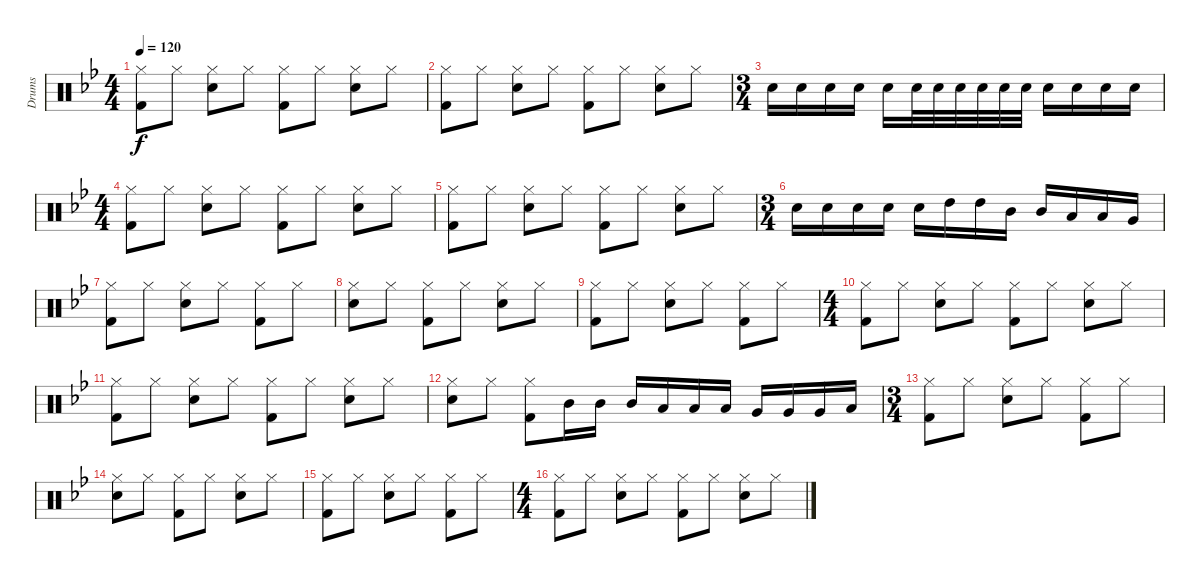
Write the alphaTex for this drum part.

\track ("Drums" "Drums") {instrument percussion}
\staff {score}
\articulation defaults
\ts (4 4)
\tempo 120
\clef neutral
\ks bb
("Hi-Hat (closed)" "Kick (hit) 2").8{dy f} "Hi-Hat (closed)".8 ("Hi-Hat (closed)" "Electric Snare (hit)").8 "Hi-Hat (closed)".8 ("Hi-Hat (closed)" "Kick (hit) 2").8 "Hi-Hat (closed)".8 ("Hi-Hat (closed)" "Electric Snare (hit)").8 "Hi-Hat (closed)".8 |
("Hi-Hat (closed)" "Kick (hit) 2").8 "Hi-Hat (closed)".8 ("Hi-Hat (closed)" "Electric Snare (hit)").8 "Hi-Hat (closed)".8 ("Hi-Hat (closed)" "Kick (hit) 2").8 "Hi-Hat (closed)".8 ("Hi-Hat (closed)" "Electric Snare (hit)").8 "Hi-Hat (closed)".8 |
\ts (3 4)
"Electric Snare (hit)".16 "Electric Snare (hit)".16 "Electric Snare (hit)".16 "Electric Snare (hit)".16 "Electric Snare (hit)".16 "Electric Snare (hit)".32 "Electric Snare (hit)".32 "Electric Snare (hit)".32 "Electric Snare (hit)".32 "Electric Snare (hit)".32 "Electric Snare (hit)".32 "Electric Snare (hit)".16 "Electric Snare (hit)".16 "Electric Snare (hit)".16 "Electric Snare (hit)".16 |
\ts (4 4)
("Hi-Hat (closed)" "Kick (hit) 2").8 "Hi-Hat (closed)".8 ("Hi-Hat (closed)" "Electric Snare (hit)").8 "Hi-Hat (closed)".8 ("Hi-Hat (closed)" "Kick (hit) 2").8 "Hi-Hat (closed)".8 ("Hi-Hat (closed)" "Electric Snare (hit)").8 "Hi-Hat (closed)".8 |
("Hi-Hat (closed)" "Kick (hit) 2").8 "Hi-Hat (closed)".8 ("Hi-Hat (closed)" "Electric Snare (hit)").8 "Hi-Hat (closed)".8 ("Hi-Hat (closed)" "Kick (hit) 2").8 "Hi-Hat (closed)".8 ("Hi-Hat (closed)" "Electric Snare (hit)").8 "Hi-Hat (closed)".8 |
\ts (3 4)
"Electric Snare (hit)".16 "Electric Snare (hit)".16 "Electric Snare (hit)".16 "Electric Snare (hit)".16 "Electric Snare (hit)".16 "High Tom (hit)".16 "High Tom (hit)".16 "Mid Tom (hit)".16 "Mid Tom (hit)".16 "Low Tom (hit)".16 "Low Tom (hit)".16 "Very Low Tom (hit)".16 |
("Hi-Hat (closed)" "Kick (hit) 2").8 "Hi-Hat (closed)".8 ("Hi-Hat (closed)" "Electric Snare (hit)").8 "Hi-Hat (closed)".8 ("Hi-Hat (closed)" "Kick (hit) 2").8 "Hi-Hat (closed)".8 |
("Hi-Hat (closed)" "Electric Snare (hit)").8 "Hi-Hat (closed)".8 ("Hi-Hat (closed)" "Kick (hit) 2").8 "Hi-Hat (closed)".8 ("Hi-Hat (closed)" "Electric Snare (hit)").8 "Hi-Hat (closed)".8 |
("Hi-Hat (closed)" "Kick (hit) 2").8 "Hi-Hat (closed)".8 ("Hi-Hat (closed)" "Electric Snare (hit)").8 "Hi-Hat (closed)".8 ("Hi-Hat (closed)" "Kick (hit) 2").8 "Hi-Hat (closed)".8 |
\ts (4 4)
("Hi-Hat (closed)" "Kick (hit) 2").8 "Hi-Hat (closed)".8 ("Hi-Hat (closed)" "Electric Snare (hit)").8 "Hi-Hat (closed)".8 ("Hi-Hat (closed)" "Kick (hit) 2").8 "Hi-Hat (closed)".8 ("Hi-Hat (closed)" "Electric Snare (hit)").8 "Hi-Hat (closed)".8 |
("Hi-Hat (closed)" "Kick (hit) 2").8 "Hi-Hat (closed)".8 ("Hi-Hat (closed)" "Electric Snare (hit)").8 "Hi-Hat (closed)".8 ("Hi-Hat (closed)" "Kick (hit) 2").8 "Hi-Hat (closed)".8 ("Hi-Hat (closed)" "Electric Snare (hit)").8 "Hi-Hat (closed)".8 |
("Hi-Hat (closed)" "Electric Snare (hit)").8 "Hi-Hat (closed)".8 ("Hi-Hat (closed)" "Kick (hit) 2").8 "Mid Tom (hit)".16 "Mid Tom (hit)".16 "Mid Tom (hit)".16 "Low Tom (hit)".16 "Low Tom (hit)".16 "Low Tom (hit)".16 "Very Low Tom (hit)".16 "Very Low Tom (hit)".16 "Very Low Tom (hit)".16 "Low Floor Tom (hit)".16 |
\ts (3 4)
("Hi-Hat (closed)" "Kick (hit) 2").8 "Hi-Hat (closed)".8 ("Hi-Hat (closed)" "Electric Snare (hit)").8 "Hi-Hat (closed)".8 ("Hi-Hat (closed)" "Kick (hit) 2").8 "Hi-Hat (closed)".8 |
("Hi-Hat (closed)" "Electric Snare (hit)").8 "Hi-Hat (closed)".8 ("Hi-Hat (closed)" "Kick (hit) 2").8 "Hi-Hat (closed)".8 ("Hi-Hat (closed)" "Electric Snare (hit)").8 "Hi-Hat (closed)".8 |
("Hi-Hat (closed)" "Kick (hit) 2").8 "Hi-Hat (closed)".8 ("Hi-Hat (closed)" "Electric Snare (hit)").8 "Hi-Hat (closed)".8 ("Hi-Hat (closed)" "Kick (hit) 2").8 "Hi-Hat (closed)".8 |
\ts (4 4)
("Hi-Hat (closed)" "Kick (hit) 2").8 "Hi-Hat (closed)".8 ("Hi-Hat (closed)" "Electric Snare (hit)").8 "Hi-Hat (closed)".8 ("Hi-Hat (closed)" "Kick (hit) 2").8 "Hi-Hat (closed)".8 ("Hi-Hat (closed)" "Electric Snare (hit)").8 "Hi-Hat (closed)".8
